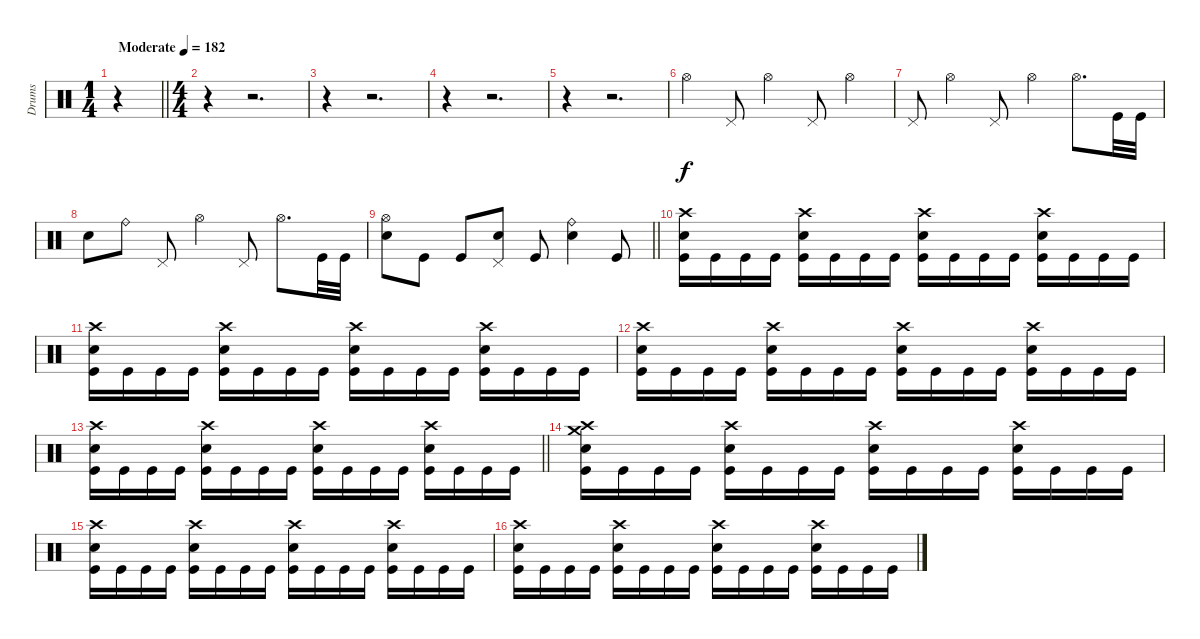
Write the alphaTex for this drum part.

\track ("Drums" "Drums") {instrument percussion}
\staff
\articulation defaults
\voice
\ts (1 4)
\tempo (182 "Moderate")
\clef neutral
\barLineRight lightlight
\ks c
r.4{dy f} |
\ts (4 4)
r.4 r.2{d} |
r.4 r.2{d} |
r.4 r.2{d} |
r.4 r.2{d} |
"Hi-Hat (open)".4 "Pedal Hi-Hat (hit)".8 "Hi-Hat (open)".4 "Pedal Hi-Hat (hit)".8 "Hi-Hat (open)".4 |
"Pedal Hi-Hat (hit)".8 "Hi-Hat (open)".4 "Pedal Hi-Hat (hit)".8 "Hi-Hat (open)".4 "Hi-Hat (open)".8{d} "Kick (hit)".32 "Kick (hit)".32 |
"Electric Snare (hit)".8 "Ride (bell)".8 "Pedal Hi-Hat (hit)".8 "Hi-Hat (open)".4 "Pedal Hi-Hat (hit)".8 "Hi-Hat (open)".8{d} "Kick (hit)".32 "Kick (hit)".32 |
\barLineRight lightlight
("Hi-Hat (open)" "Electric Snare (hit)").8 "Kick (hit)".8 "Kick (hit)".8 ("Pedal Hi-Hat (hit)" "Electric Snare (hit)").8 "Kick (hit)".8 ("Ride (bell)" "Electric Snare (hit)").4 "Kick (hit)".8 |
\section ("" "")
("Crash high (hit)" "Electric Snare (hit)" "Kick (hit)").16 "Kick (hit)".16 "Kick (hit)".16 "Kick (hit)".16 ("Crash high (hit)" "Electric Snare (hit)" "Kick (hit)").16 "Kick (hit)".16 "Kick (hit)".16 "Kick (hit)".16 ("Crash high (hit)" "Electric Snare (hit)" "Kick (hit)").16 "Kick (hit)".16 "Kick (hit)".16 "Kick (hit)".16 ("Crash high (hit)" "Electric Snare (hit)" "Kick (hit)").16 "Kick (hit)".16 "Kick (hit)".16 "Kick (hit)".16 |
("Crash high (hit)" "Electric Snare (hit)" "Kick (hit)").16 "Kick (hit)".16 "Kick (hit)".16 "Kick (hit)".16 ("Crash high (hit)" "Electric Snare (hit)" "Kick (hit)").16 "Kick (hit)".16 "Kick (hit)".16 "Kick (hit)".16 ("Crash high (hit)" "Electric Snare (hit)" "Kick (hit)").16 "Kick (hit)".16 "Kick (hit)".16 "Kick (hit)".16 ("Crash high (hit)" "Electric Snare (hit)" "Kick (hit)").16 "Kick (hit)".16 "Kick (hit)".16 "Kick (hit)".16 |
("Crash high (hit)" "Electric Snare (hit)" "Kick (hit)").16 "Kick (hit)".16 "Kick (hit)".16 "Kick (hit)".16 ("Crash high (hit)" "Electric Snare (hit)" "Kick (hit)").16 "Kick (hit)".16 "Kick (hit)".16 "Kick (hit)".16 ("Crash high (hit)" "Electric Snare (hit)" "Kick (hit)").16 "Kick (hit)".16 "Kick (hit)".16 "Kick (hit)".16 ("Crash high (hit)" "Electric Snare (hit)" "Kick (hit)").16 "Kick (hit)".16 "Kick (hit)".16 "Kick (hit)".16 |
\barLineRight lightlight
("Crash high (hit)" "Electric Snare (hit)" "Kick (hit)").16 "Kick (hit)".16 "Kick (hit)".16 "Kick (hit)".16 ("Crash high (hit)" "Electric Snare (hit)" "Kick (hit)").16 "Kick (hit)".16 "Kick (hit)".16 "Kick (hit)".16 ("Crash high (hit)" "Electric Snare (hit)" "Kick (hit)").16 "Kick (hit)".16 "Kick (hit)".16 "Kick (hit)".16 ("Crash high (hit)" "Electric Snare (hit)" "Kick (hit)").16 "Kick (hit)".16 "Kick (hit)".16 "Kick (hit)".16 |
("Crash medium (hit)" "Crash high (hit)" "Electric Snare (hit)" "Kick (hit)").16 "Kick (hit)".16 "Kick (hit)".16 "Kick (hit)".16 ("Crash high (hit)" "Electric Snare (hit)" "Kick (hit)").16 "Kick (hit)".16 "Kick (hit)".16 "Kick (hit)".16 ("Crash high (hit)" "Electric Snare (hit)" "Kick (hit)").16 "Kick (hit)".16 "Kick (hit)".16 "Kick (hit)".16 ("Crash high (hit)" "Electric Snare (hit)" "Kick (hit)").16 "Kick (hit)".16 "Kick (hit)".16 "Kick (hit)".16 |
("Crash high (hit)" "Electric Snare (hit)" "Kick (hit)").16 "Kick (hit)".16 "Kick (hit)".16 "Kick (hit)".16 ("Crash high (hit)" "Electric Snare (hit)" "Kick (hit)").16 "Kick (hit)".16 "Kick (hit)".16 "Kick (hit)".16 ("Crash high (hit)" "Electric Snare (hit)" "Kick (hit)").16 "Kick (hit)".16 "Kick (hit)".16 "Kick (hit)".16 ("Crash high (hit)" "Electric Snare (hit)" "Kick (hit)").16 "Kick (hit)".16 "Kick (hit)".16 "Kick (hit)".16 |
("Crash high (hit)" "Electric Snare (hit)" "Kick (hit)").16 "Kick (hit)".16 "Kick (hit)".16 "Kick (hit)".16 ("Crash high (hit)" "Electric Snare (hit)" "Kick (hit)").16 "Kick (hit)".16 "Kick (hit)".16 "Kick (hit)".16 ("Crash high (hit)" "Electric Snare (hit)" "Kick (hit)").16 "Kick (hit)".16 "Kick (hit)".16 "Kick (hit)".16 ("Crash high (hit)" "Electric Snare (hit)" "Kick (hit)").16 "Kick (hit)".16 "Kick (hit)".16 "Kick (hit)".16
\voice
\clef neutral
\ottava regular
\simile none
\barLineRight lightlight
\ks c
r.4{dy f} |
|
|
|
|
|
|
|
\barLineRight lightlight
|
|
|
|
\barLineRight lightlight
|
|
|
